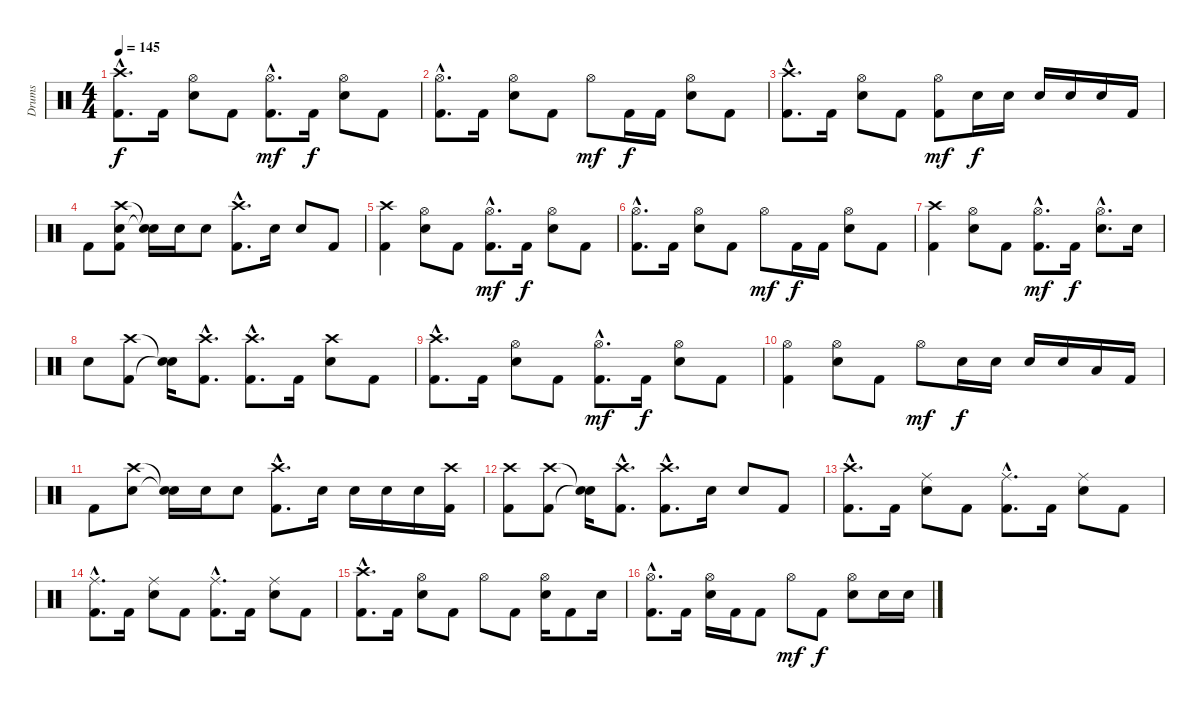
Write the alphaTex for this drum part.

\track ("Drums" "Drums") {instrument percussion}
\staff {score}
\articulation defaults
\ts (4 4)
\tempo 145
\clef neutral
\ks c
("Crash high (hit)"{hac} "Kick (hit) 2"{hac}).8{d dy f} "Kick (hit) 2".16 ("Hi-Hat (open)" "Electric Snare (hit)").8 "Kick (hit) 2".8 ("Hi-Hat (open)"{hac} "Kick (hit) 2"{hac}).8{d dy mf} "Kick (hit) 2".16{dy f} ("Hi-Hat (open)" "Electric Snare (hit)").8 "Kick (hit) 2".8 |
("Hi-Hat (open)"{hac} "Kick (hit) 2"{hac}).8{d} "Kick (hit) 2".16 ("Hi-Hat (open)" "Electric Snare (hit)").8 "Kick (hit) 2".8 "Hi-Hat (open)".8{dy mf} "Kick (hit) 2".16{dy f} "Kick (hit) 2".16 ("Hi-Hat (open)" "Electric Snare (hit)").8 "Kick (hit) 2".8 |
("Crash high (hit)"{hac} "Kick (hit) 2"{hac}).8{d} "Kick (hit) 2".16 ("Hi-Hat (open)" "Electric Snare (hit)").8 "Kick (hit) 2".8 ("Hi-Hat (open)" "Kick (hit) 2").8{dy mf} "Electric Snare (hit)".16{dy f} "Electric Snare (hit)".16 "Electric Snare (hit)".16 "Electric Snare (hit)".16 "Electric Snare (hit)".16 "Kick (hit) 2".16 |
"Kick (hit) 2".8 ("Crash high (hit)" "Electric Snare (hit)" "Kick (hit) 2").8 ("Snare (hit)"{t} "Snare (hit)"{t}).16 "Electric Snare (hit)".16 "Electric Snare (hit)".8 ("Crash high (hit)"{hac} "Kick (hit) 2"{hac}).8{d} "Electric Snare (hit)".16 "Electric Snare (hit)".8 "Kick (hit) 2".8 |
("Crash high (hit)" "Kick (hit) 2").4 ("Hi-Hat (open)" "Electric Snare (hit)").8 "Kick (hit) 2".8 ("Hi-Hat (open)"{hac} "Kick (hit) 2"{hac}).8{d dy mf} "Kick (hit) 2".16{dy f} ("Hi-Hat (open)" "Electric Snare (hit)").8 "Kick (hit) 2".8 |
("Hi-Hat (open)"{hac} "Kick (hit) 2"{hac}).8{d} "Kick (hit) 2".16 ("Hi-Hat (open)" "Electric Snare (hit)").8 "Kick (hit) 2".8 "Hi-Hat (open)".8{dy mf} "Kick (hit) 2".16{dy f} "Kick (hit) 2".16 ("Hi-Hat (open)" "Electric Snare (hit)").8 "Kick (hit) 2".8 |
("Crash high (hit)" "Kick (hit) 2").4 ("Hi-Hat (open)" "Electric Snare (hit)").8 "Kick (hit) 2".8 ("Hi-Hat (open)"{hac} "Kick (hit) 2"{hac}).8{d dy mf} "Kick (hit) 2".16{dy f} ("Hi-Hat (open)"{hac} "Electric Snare (hit)"{hac}).8{d} "Electric Snare (hit)".16 |
"Electric Snare (hit)".8 ("Crash high (hit)" "Kick (hit) 2").8 ("Snare (hit)"{t} "Snare (hit)"{t}).16 ("Crash high (hit)"{hac} "Kick (hit) 2"{hac}).8{d} ("Crash high (hit)"{hac} "Kick (hit) 2"{hac}).8{d} "Kick (hit) 2".16 ("Crash high (hit)" "Electric Snare (hit)").8 "Kick (hit) 2".8 |
("Crash high (hit)"{hac} "Kick (hit) 2"{hac}).8{d} "Kick (hit) 2".16 ("Hi-Hat (open)" "Electric Snare (hit)").8 "Kick (hit) 2".8 ("Hi-Hat (open)"{hac} "Kick (hit) 2"{hac}).8{d dy mf} "Kick (hit) 2".16{dy f} ("Hi-Hat (open)" "Electric Snare (hit)").8 "Kick (hit) 2".8 |
("Hi-Hat (open)" "Kick (hit) 2").4 ("Hi-Hat (open)" "Electric Snare (hit)").8 "Kick (hit) 2".8 "Hi-Hat (open)".8{dy mf} "Electric Snare (hit)".16{dy f} "Electric Snare (hit)".16 "Electric Snare (hit)".16 "Electric Snare (hit)".16 "Low Tom (hit)".16 "Kick (hit) 2".16 |
"Kick (hit) 2".8 ("Crash high (hit)" "Electric Snare (hit)").8 ("Snare (hit)"{t} "Snare (hit)"{t}).16 "Electric Snare (hit)".16 "Electric Snare (hit)".8 ("Crash high (hit)"{hac} "Kick (hit) 2"{hac}).8{d} "Electric Snare (hit)".16 "Electric Snare (hit)".16 "Electric Snare (hit)".16 "Electric Snare (hit)".16 ("Crash high (hit)" "Kick (hit) 2").16 |
("Crash high (hit)" "Kick (hit) 2").8 ("Crash high (hit)" "Kick (hit) 2").8 ("Snare (hit)"{t} "Snare (hit)"{t}).16 ("Crash high (hit)"{hac} "Kick (hit) 2"{hac}).8{d} ("Crash high (hit)"{hac} "Kick (hit) 2"{hac}).8{d} "Electric Snare (hit)".16 "Electric Snare (hit)".8 "Kick (hit) 2".8 |
("Crash high (hit)"{hac} "Kick (hit) 2"{hac}).8{d} "Kick (hit) 2".16 ("Ride (middle)" "Electric Snare (hit)").8 "Kick (hit) 2".8 ("Ride (middle)"{hac} "Kick (hit) 2"{hac}).8{d} "Kick (hit) 2".16 ("Ride (middle)" "Electric Snare (hit)").8 "Kick (hit) 2".8 |
("Ride (middle)"{hac} "Kick (hit) 2"{hac}).8{d} "Kick (hit) 2".16 ("Ride (middle)" "Electric Snare (hit)").8 "Kick (hit) 2".8 ("Ride (middle)"{hac} "Kick (hit) 2"{hac}).8{d} "Kick (hit) 2".16 ("Ride (middle)" "Electric Snare (hit)").8 "Kick (hit) 2".8 |
("Crash high (hit)"{hac} "Kick (hit) 2"{hac}).8{d} "Kick (hit) 2".16 ("Hi-Hat (open)" "Electric Snare (hit)").8 "Kick (hit) 2".8 "Hi-Hat (open)".8 "Kick (hit) 2".8 ("Hi-Hat (open)" "Electric Snare (hit)").16 "Kick (hit) 2".8 "Electric Snare (hit)".16 |
("Hi-Hat (open)"{hac} "Kick (hit) 2"{hac}).8{d} "Kick (hit) 2".16 ("Hi-Hat (open)" "Electric Snare (hit)").16 "Kick (hit) 2".16 "Kick (hit) 2".8 "Hi-Hat (open)".8{dy mf} "Kick (hit) 2".8{dy f} ("Hi-Hat (open)" "Electric Snare (hit)").8 "Electric Snare (hit)".16 "Electric Snare (hit)".16
